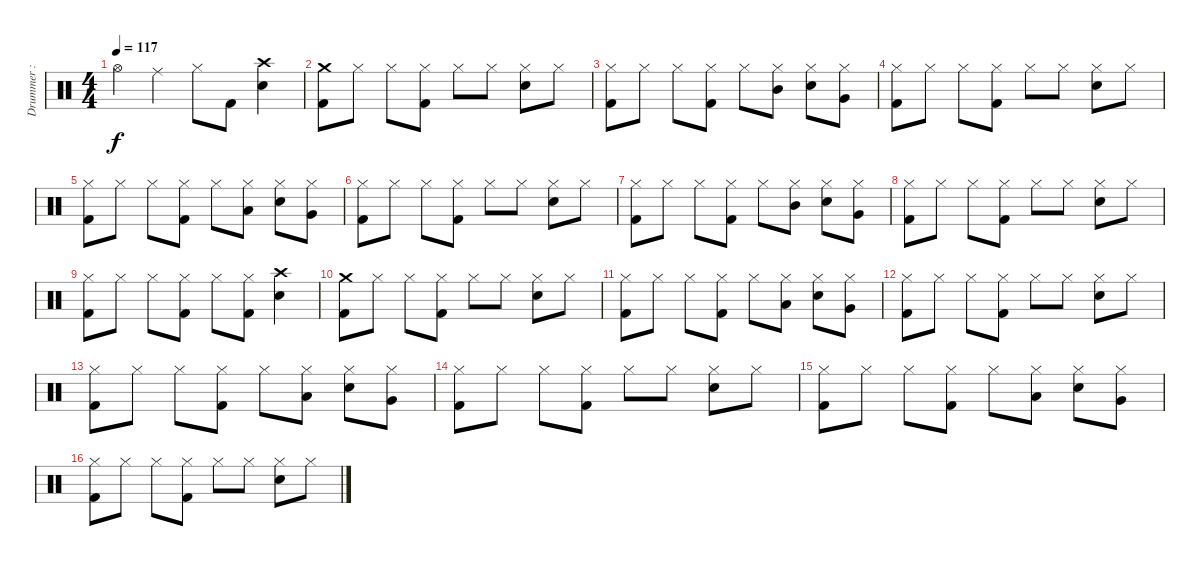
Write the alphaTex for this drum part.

\track ("Drummer : Tainaka Ritsu - San" "Drummer : ") {instrument percussion}
\staff {score}
\articulation defaults
\ts (4 4)
\tempo 117
\clef neutral
\ks c "Hi-Hat (open)".4{dy f} "Ride (middle)".4 "Hi-Hat (closed)".8 "Kick (hit) 2".8
("Crash high (hit)" "Snare (hit) 2").4 |
("Crash medium (hit)" "Kick (hit) 2").8 "Hi-Hat (closed)".8 "Hi-Hat (closed)".8 ("Hi-Hat (closed)" "Kick (hit) 2").8 "Hi-Hat (closed)".8 "Hi-Hat (closed)".8 ("Hi-Hat (closed)" "Snare (hit) 2").8 "Hi-Hat (closed)".8 |
("Hi-Hat (closed)" "Kick (hit) 2").8 "Hi-Hat (closed)".8 "Hi-Hat (closed)".8 ("Hi-Hat (closed)" "Kick (hit) 2").8 "Hi-Hat (closed)".8 ("Mid Tom (hit)" "Hi-Hat (closed)").8 ("Hi-Hat (closed)" "Snare (hit) 2").8 ("Very Low Tom (hit)" "Hi-Hat (closed)").8 |
("Hi-Hat (closed)" "Kick (hit) 2").8 "Hi-Hat (closed)".8 "Hi-Hat (closed)".8 ("Hi-Hat (closed)" "Kick (hit) 2").8 "Hi-Hat (closed)".8 "Hi-Hat (closed)".8 ("Hi-Hat (closed)" "Snare (hit) 2").8 "Hi-Hat (closed)".8 |
("Hi-Hat (closed)" "Kick (hit) 2").8 "Hi-Hat (closed)".8 "Hi-Hat (closed)".8 ("Hi-Hat (closed)" "Kick (hit) 2").8 "Hi-Hat (closed)".8 ("Low Tom (hit)" "Hi-Hat (closed)").8 ("Hi-Hat (closed)" "Snare (hit) 2").8 ("Very Low Tom (hit)" "Hi-Hat (closed)").8 |
("Hi-Hat (closed)" "Kick (hit) 2").8 "Hi-Hat (closed)".8 "Hi-Hat (closed)".8 ("Hi-Hat (closed)" "Kick (hit) 2").8 "Hi-Hat (closed)".8 "Hi-Hat (closed)".8 ("Hi-Hat (closed)" "Snare (hit) 2").8 "Hi-Hat (closed)".8 |
("Hi-Hat (closed)" "Kick (hit) 2").8 "Hi-Hat (closed)".8 "Hi-Hat (closed)".8 ("Hi-Hat (closed)" "Kick (hit) 2").8 "Hi-Hat (closed)".8 ("Mid Tom (hit)" "Hi-Hat (closed)").8 ("Hi-Hat (closed)" "Snare (hit) 2").8 ("Very Low Tom (hit)" "Hi-Hat (closed)").8 |
("Hi-Hat (closed)" "Kick (hit) 2").8 "Hi-Hat (closed)".8 "Hi-Hat (closed)".8 ("Hi-Hat (closed)" "Kick (hit) 2").8 "Hi-Hat (closed)".8 "Hi-Hat (closed)".8 ("Hi-Hat (closed)" "Snare (hit) 2").8 "Hi-Hat (closed)".8 |
("Hi-Hat (closed)" "Kick (hit) 2").8 "Hi-Hat (closed)".8 "Hi-Hat (closed)".8 ("Hi-Hat (closed)" "Kick (hit) 2").8 "Hi-Hat (closed)".8 ("Hi-Hat (closed)" "Kick (hit) 2").8 ("Crash high (hit)" "Snare (hit) 2").4 |
("Crash medium (hit)" "Kick (hit) 2").8 "Hi-Hat (closed)".8 "Hi-Hat (closed)".8 ("Hi-Hat (closed)" "Kick (hit) 2").8 "Hi-Hat (closed)".8 "Hi-Hat (closed)".8 ("Hi-Hat (closed)" "Snare (hit) 2").8 "Hi-Hat (closed)".8 |
("Hi-Hat (closed)" "Kick (hit) 2").8 "Hi-Hat (closed)".8 "Hi-Hat (closed)".8 ("Hi-Hat (closed)" "Kick (hit) 2").8 "Hi-Hat (closed)".8 ("Low Tom (hit)" "Hi-Hat (closed)").8 ("Hi-Hat (closed)" "Snare (hit) 2").8 ("Very Low Tom (hit)" "Hi-Hat (closed)").8 |
("Hi-Hat (closed)" "Kick (hit) 2").8 "Hi-Hat (closed)".8 "Hi-Hat (closed)".8 ("Hi-Hat (closed)" "Kick (hit) 2").8 "Hi-Hat (closed)".8 "Hi-Hat (closed)".8 ("Hi-Hat (closed)" "Snare (hit) 2").8 "Hi-Hat (closed)".8 |
("Hi-Hat (closed)" "Kick (hit) 2").8 "Hi-Hat (closed)".8 "Hi-Hat (closed)".8 ("Hi-Hat (closed)" "Kick (hit) 2").8 "Hi-Hat (closed)".8 ("Low Tom (hit)" "Hi-Hat (closed)").8 ("Hi-Hat (closed)" "Snare (hit) 2").8 ("Very Low Tom (hit)" "Hi-Hat (closed)").8 |
("Hi-Hat (closed)" "Kick (hit) 2").8 "Hi-Hat (closed)".8 "Hi-Hat (closed)".8 ("Hi-Hat (closed)" "Kick (hit) 2").8 "Hi-Hat (closed)".8 "Hi-Hat (closed)".8 ("Hi-Hat (closed)" "Snare (hit) 2").8 "Hi-Hat (closed)".8 |
("Hi-Hat (closed)" "Kick (hit) 2").8 "Hi-Hat (closed)".8 "Hi-Hat (closed)".8 ("Hi-Hat (closed)" "Kick (hit) 2").8 "Hi-Hat (closed)".8 ("Low Tom (hit)" "Hi-Hat (closed)").8 ("Hi-Hat (closed)" "Snare (hit) 2").8 ("Very Low Tom (hit)" "Hi-Hat (closed)").8 |
("Hi-Hat (closed)" "Kick (hit) 2").8 "Hi-Hat (closed)".8 "Hi-Hat (closed)".8 ("Hi-Hat (closed)" "Kick (hit) 2").8 "Hi-Hat (closed)".8 "Hi-Hat (closed)".8 ("Hi-Hat (closed)" "Snare (hit) 2").8 "Hi-Hat (closed)".8
